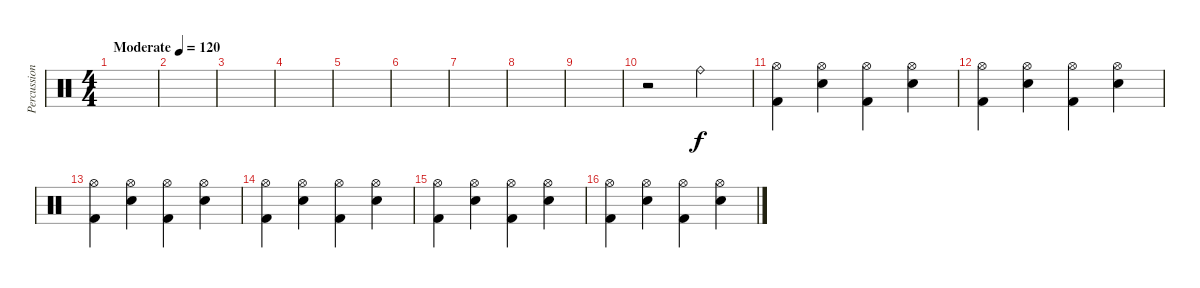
\track ("Percussion" "Percussion") {instrument percussion}
\staff {score}
\articulation defaults
\ts (4 4)
\tempo (120 "Moderate")
\clef neutral
\ks c
|
|
|
|
|
|
|
|
|
r.2 "Ride (bell)".2 |
("Hi-Hat (open)" "Kick (hit) 2").4 ("Snare (hit) 2" "Hi-Hat (open)").4 ("Hi-Hat (open)" "Kick (hit) 2").4 ("Snare (hit) 2" "Hi-Hat (open)").4 |
("Hi-Hat (open)" "Kick (hit) 2").4 ("Snare (hit) 2" "Hi-Hat (open)").4 ("Hi-Hat (open)" "Kick (hit) 2").4 ("Snare (hit) 2" "Hi-Hat (open)").4 |
("Hi-Hat (open)" "Kick (hit) 2").4 ("Snare (hit) 2" "Hi-Hat (open)").4 ("Hi-Hat (open)" "Kick (hit) 2").4 ("Snare (hit) 2" "Hi-Hat (open)").4 |
("Hi-Hat (open)" "Kick (hit) 2").4 ("Snare (hit) 2" "Hi-Hat (open)").4 ("Hi-Hat (open)" "Kick (hit) 2").4 ("Snare (hit) 2" "Hi-Hat (open)").4 |
("Hi-Hat (open)" "Kick (hit) 2").4 ("Snare (hit) 2" "Hi-Hat (open)").4 ("Hi-Hat (open)" "Kick (hit) 2").4 ("Snare (hit) 2" "Hi-Hat (open)").4 |
("Hi-Hat (open)" "Kick (hit) 2").4 ("Snare (hit) 2" "Hi-Hat (open)").4 ("Hi-Hat (open)" "Kick (hit) 2").4 ("Snare (hit) 2" "Hi-Hat (open)").4
